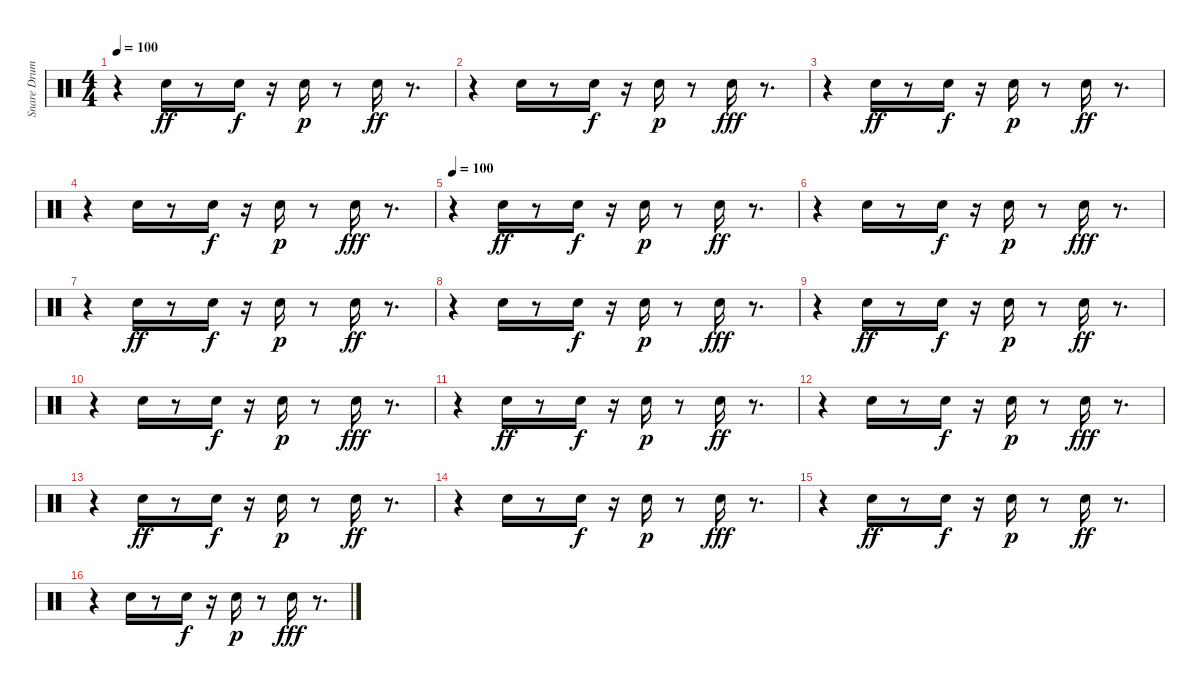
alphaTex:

\track ("Snare Drums" "Snare Drum") {instrument percussion}
\staff {score}
\articulation defaults
\ts (4 4)
\tempo 100
\clef neutral
\ks c
r.4{dy ff} "Snare (hit) 2".16 r.8 "Electric Snare (hit)".16{dy f} r.16 "Electric Snare (hit)".16{dy p} r.8 "Snare (hit) 2".16{dy ff} r.8{d} |
r.4 "Snare (hit) 2".16 r.8 "Electric Snare (hit)".16{dy f} r.16 "Electric Snare (hit)".16{dy p} r.8 "Snare (hit) 2".16{dy fff} r.8{d} |
r.4 "Snare (hit) 2".16{dy ff} r.8 "Electric Snare (hit)".16{dy f} r.16 "Electric Snare (hit)".16{dy p} r.8 "Snare (hit) 2".16{dy ff} r.8{d} |
r.4 "Snare (hit) 2".16 r.8 "Electric Snare (hit)".16{dy f} r.16 "Electric Snare (hit)".16{dy p} r.8 "Snare (hit) 2".16{dy fff} r.8{d} |
\tempo 100
r.4 "Snare (hit) 2".16{dy ff} r.8 "Electric Snare (hit)".16{dy f} r.16 "Electric Snare (hit)".16{dy p} r.8 "Snare (hit) 2".16{dy ff} r.8{d} |
r.4 "Snare (hit) 2".16 r.8 "Electric Snare (hit)".16{dy f} r.16 "Electric Snare (hit)".16{dy p} r.8 "Snare (hit) 2".16{dy fff} r.8{d} |
r.4 "Snare (hit) 2".16{dy ff} r.8 "Electric Snare (hit)".16{dy f} r.16 "Electric Snare (hit)".16{dy p} r.8 "Snare (hit) 2".16{dy ff} r.8{d} |
r.4 "Snare (hit) 2".16 r.8 "Electric Snare (hit)".16{dy f} r.16 "Electric Snare (hit)".16{dy p} r.8 "Snare (hit) 2".16{dy fff} r.8{d} |
r.4 "Snare (hit) 2".16{dy ff} r.8 "Electric Snare (hit)".16{dy f} r.16 "Electric Snare (hit)".16{dy p} r.8 "Snare (hit) 2".16{dy ff} r.8{d} |
r.4 "Snare (hit) 2".16 r.8 "Electric Snare (hit)".16{dy f} r.16 "Electric Snare (hit)".16{dy p} r.8 "Snare (hit) 2".16{dy fff} r.8{d} |
r.4 "Snare (hit) 2".16{dy ff} r.8 "Electric Snare (hit)".16{dy f} r.16 "Electric Snare (hit)".16{dy p} r.8 "Snare (hit) 2".16{dy ff} r.8{d} |
r.4 "Snare (hit) 2".16 r.8 "Electric Snare (hit)".16{dy f} r.16 "Electric Snare (hit)".16{dy p} r.8 "Snare (hit) 2".16{dy fff} r.8{d} |
r.4 "Snare (hit) 2".16{dy ff} r.8 "Electric Snare (hit)".16{dy f} r.16 "Electric Snare (hit)".16{dy p} r.8 "Snare (hit) 2".16{dy ff} r.8{d} |
r.4 "Snare (hit) 2".16 r.8 "Electric Snare (hit)".16{dy f} r.16 "Electric Snare (hit)".16{dy p} r.8 "Snare (hit) 2".16{dy fff} r.8{d} |
r.4 "Snare (hit) 2".16{dy ff} r.8 "Electric Snare (hit)".16{dy f} r.16 "Electric Snare (hit)".16{dy p} r.8 "Snare (hit) 2".16{dy ff} r.8{d} |
r.4 "Snare (hit) 2".16 r.8 "Electric Snare (hit)".16{dy f} r.16 "Electric Snare (hit)".16{dy p} r.8 "Snare (hit) 2".16{dy fff} r.8{d}
